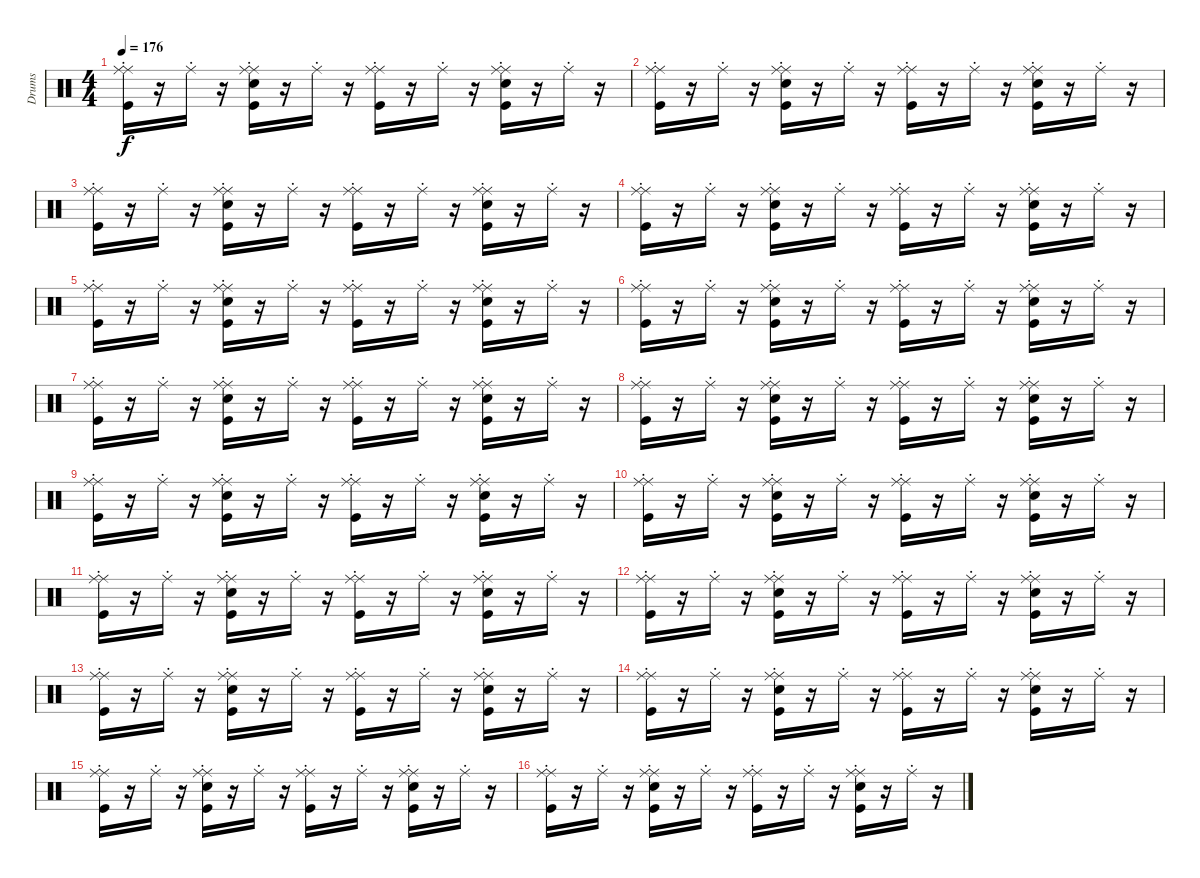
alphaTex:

\track ("Drums" "Drums") {instrument percussion}
\staff {score}
\articulation defaults
\ts (4 4)
\tempo 176
\clef neutral
\ks c
("Ride (middle)" "Kick (hit)" "Ride (choke)").16{dy f} r.16 "Ride (choke)".16 r.16 ("Ride (middle)" "Kick (hit)" "Snare (hit) 2" "Ride (choke)").16 r.16 "Ride (choke)".16 r.16 ("Ride (middle)" "Kick (hit)" "Ride (choke)").16 r.16 "Ride (choke)".16 r.16 ("Kick (hit)" "Snare (hit) 2" "Ride (choke)" "Ride (middle)").16 r.16 "Ride (choke)".16 r.16 |
("Ride (middle)" "Kick (hit)" "Ride (choke)").16 r.16 "Ride (choke)".16 r.16 ("Ride (middle)" "Kick (hit)" "Snare (hit) 2" "Ride (choke)").16 r.16 "Ride (choke)".16 r.16 ("Ride (middle)" "Kick (hit)" "Ride (choke)").16 r.16 "Ride (choke)".16 r.16 ("Ride (middle)" "Kick (hit)" "Snare (hit) 2" "Ride (choke)").16 r.16 "Ride (choke)".16 r.16 |
("Ride (middle)" "Kick (hit)" "Ride (choke)").16 r.16 "Ride (choke)".16 r.16 ("Ride (middle)" "Kick (hit)" "Snare (hit) 2" "Ride (choke)").16 r.16 "Ride (choke)".16 r.16 ("Ride (middle)" "Kick (hit)" "Ride (choke)").16 r.16 "Ride (choke)".16 r.16 ("Kick (hit)" "Snare (hit) 2" "Ride (choke)" "Ride (middle)").16 r.16 "Ride (choke)".16 r.16 |
("Ride (middle)" "Kick (hit)" "Ride (choke)").16 r.16 "Ride (choke)".16 r.16 ("Ride (middle)" "Kick (hit)" "Snare (hit) 2" "Ride (choke)").16 r.16 "Ride (choke)".16 r.16 ("Ride (middle)" "Kick (hit)" "Ride (choke)").16 r.16 "Ride (choke)".16 r.16 ("Ride (middle)" "Kick (hit)" "Snare (hit) 2" "Ride (choke)").16 r.16 "Ride (choke)".16 r.16 |
("Ride (middle)" "Kick (hit)" "Ride (choke)").16 r.16 "Ride (choke)".16 r.16 ("Ride (middle)" "Kick (hit)" "Snare (hit) 2" "Ride (choke)").16 r.16 "Ride (choke)".16 r.16 ("Ride (middle)" "Kick (hit)" "Ride (choke)").16 r.16 "Ride (choke)".16 r.16 ("Kick (hit)" "Snare (hit) 2" "Ride (choke)" "Ride (middle)").16 r.16 "Ride (choke)".16 r.16 |
("Ride (middle)" "Kick (hit)" "Ride (choke)").16 r.16 "Ride (choke)".16 r.16 ("Ride (middle)" "Kick (hit)" "Snare (hit) 2" "Ride (choke)").16 r.16 "Ride (choke)".16 r.16 ("Ride (middle)" "Kick (hit)" "Ride (choke)").16 r.16 "Ride (choke)".16 r.16 ("Ride (middle)" "Kick (hit)" "Snare (hit) 2" "Ride (choke)").16 r.16 "Ride (choke)".16 r.16 |
("Ride (middle)" "Kick (hit)" "Ride (choke)").16 r.16 "Ride (choke)".16 r.16 ("Ride (middle)" "Kick (hit)" "Snare (hit) 2" "Ride (choke)").16 r.16 "Ride (choke)".16 r.16 ("Ride (middle)" "Kick (hit)" "Ride (choke)").16 r.16 "Ride (choke)".16 r.16 ("Kick (hit)" "Snare (hit) 2" "Ride (choke)" "Ride (middle)").16 r.16 "Ride (choke)".16 r.16 |
("Ride (middle)" "Kick (hit)" "Ride (choke)").16 r.16 "Ride (choke)".16 r.16 ("Ride (middle)" "Kick (hit)" "Snare (hit) 2" "Ride (choke)").16 r.16 "Ride (choke)".16 r.16 ("Ride (middle)" "Kick (hit)" "Ride (choke)").16 r.16 "Ride (choke)".16 r.16 ("Ride (middle)" "Kick (hit)" "Snare (hit) 2" "Ride (choke)").16 r.16 "Ride (choke)".16 r.16 |
("Ride (middle)" "Kick (hit)" "Ride (choke)").16 r.16 "Ride (choke)".16 r.16 ("Ride (middle)" "Kick (hit)" "Snare (hit) 2" "Ride (choke)").16 r.16 "Ride (choke)".16 r.16 ("Ride (middle)" "Kick (hit)" "Ride (choke)").16 r.16 "Ride (choke)".16 r.16 ("Ride (middle)" "Kick (hit)" "Snare (hit) 2" "Ride (choke)").16 r.16 "Ride (choke)".16 r.16 |
("Ride (middle)" "Kick (hit)" "Ride (choke)").16 r.16 "Ride (choke)".16 r.16 ("Ride (middle)" "Kick (hit)" "Snare (hit) 2" "Ride (choke)").16 r.16 "Ride (choke)".16 r.16 ("Ride (middle)" "Kick (hit)" "Ride (choke)").16 r.16 "Ride (choke)".16 r.16 ("Ride (middle)" "Kick (hit)" "Snare (hit) 2" "Ride (choke)").16 r.16 "Ride (choke)".16 r.16 |
("Ride (middle)" "Kick (hit)" "Ride (choke)").16 r.16 "Ride (choke)".16 r.16 ("Ride (middle)" "Kick (hit)" "Snare (hit) 2" "Ride (choke)").16 r.16 "Ride (choke)".16 r.16 ("Ride (middle)" "Kick (hit)" "Ride (choke)").16 r.16 "Ride (choke)".16 r.16 ("Ride (middle)" "Kick (hit)" "Snare (hit) 2" "Ride (choke)").16 r.16 "Ride (choke)".16 r.16 |
("Ride (middle)" "Kick (hit)" "Ride (choke)").16 r.16 "Ride (choke)".16 r.16 ("Ride (middle)" "Kick (hit)" "Snare (hit) 2" "Ride (choke)").16 r.16 "Ride (choke)".16 r.16 ("Ride (middle)" "Kick (hit)" "Ride (choke)").16 r.16 "Ride (choke)".16 r.16 ("Ride (middle)" "Kick (hit)" "Snare (hit) 2" "Ride (choke)").16 r.16 "Ride (choke)".16 r.16 |
("Ride (middle)" "Kick (hit)" "Ride (choke)").16 r.16 "Ride (choke)".16 r.16 ("Ride (middle)" "Kick (hit)" "Snare (hit) 2" "Ride (choke)").16 r.16 "Ride (choke)".16 r.16 ("Ride (middle)" "Kick (hit)" "Ride (choke)").16 r.16 "Ride (choke)".16 r.16 ("Ride (middle)" "Kick (hit)" "Snare (hit) 2" "Ride (choke)").16 r.16 "Ride (choke)".16 r.16 |
("Ride (middle)" "Kick (hit)" "Ride (choke)").16 r.16 "Ride (choke)".16 r.16 ("Ride (middle)" "Kick (hit)" "Snare (hit) 2" "Ride (choke)").16 r.16 "Ride (choke)".16 r.16 ("Ride (middle)" "Kick (hit)" "Ride (choke)").16 r.16 "Ride (choke)".16 r.16 ("Ride (middle)" "Kick (hit)" "Snare (hit) 2" "Ride (choke)").16 r.16 "Ride (choke)".16 r.16 |
("Ride (middle)" "Kick (hit)" "Ride (choke)").16 r.16 "Ride (choke)".16 r.16 ("Ride (middle)" "Kick (hit)" "Snare (hit) 2" "Ride (choke)").16 r.16 "Ride (choke)".16 r.16 ("Ride (middle)" "Kick (hit)" "Ride (choke)").16 r.16 "Ride (choke)".16 r.16 ("Ride (middle)" "Kick (hit)" "Snare (hit) 2" "Ride (choke)").16 r.16 "Ride (choke)".16 r.16 |
("Ride (middle)" "Kick (hit)" "Ride (choke)").16 r.16 "Ride (choke)".16 r.16 ("Ride (middle)" "Kick (hit)" "Snare (hit) 2" "Ride (choke)").16 r.16 "Ride (choke)".16 r.16 ("Ride (middle)" "Kick (hit)" "Ride (choke)").16 r.16 "Ride (choke)".16 r.16 ("Ride (middle)" "Kick (hit)" "Snare (hit) 2" "Ride (choke)").16 r.16 "Ride (choke)".16 r.16
